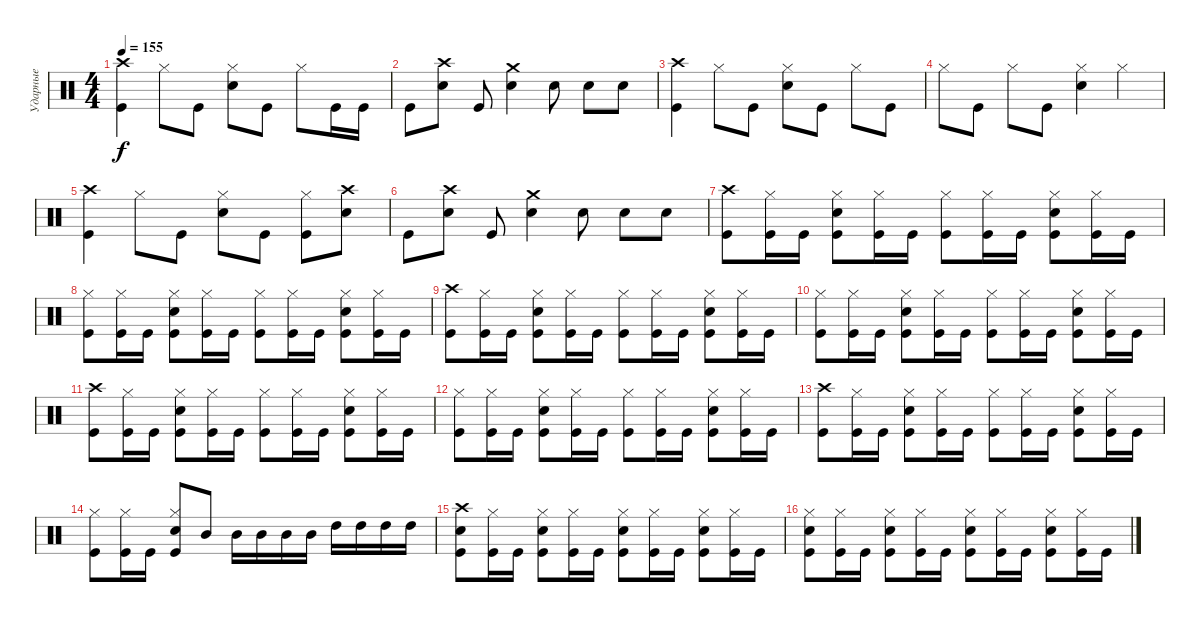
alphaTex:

\track ("Ударные" "Ударные") {instrument percussion}
\staff {score}
\articulation defaults
\ts (4 4)
\tempo 155
\clef neutral
\ks c
("Crash high (hit)" "Kick (hit)").4{dy f} "Hi-Hat (closed)".8 "Kick (hit)".8 ("Hi-Hat (closed)" "Electric Snare (hit)").8 "Kick (hit)".8 "Hi-Hat (closed)".8 "Kick (hit)".16 "Kick (hit)".16 |
"Kick (hit)".8 ("Crash high (hit)" "Electric Snare (hit)").8 "Kick (hit)".8 ("Crash medium (hit)" "Electric Snare (hit)").4 "Electric Snare (hit)".8 "Electric Snare (hit)".8 "Electric Snare (hit)".8 |
("Crash high (hit)" "Kick (hit)").4 "Hi-Hat (closed)".8 "Kick (hit)".8 ("Hi-Hat (closed)" "Electric Snare (hit)").8 "Kick (hit)".8 "Hi-Hat (closed)".8 "Kick (hit)".8 |
"Hi-Hat (closed)".8 "Kick (hit)".8 "Hi-Hat (closed)".8 "Kick (hit)".8 ("Hi-Hat (closed)" "Electric Snare (hit)").4 "Hi-Hat (closed)".4 |
("Crash high (hit)" "Kick (hit)").4 "Hi-Hat (closed)".8 "Kick (hit)".8 ("Hi-Hat (closed)" "Electric Snare (hit)").8 "Kick (hit)".8 ("Hi-Hat (closed)" "Kick (hit)").8 ("Crash high (hit)" "Electric Snare (hit)").8 |
"Kick (hit)".8 ("Crash high (hit)" "Electric Snare (hit)").8 "Kick (hit)".8 ("Crash medium (hit)" "Electric Snare (hit)").4 "Electric Snare (hit)".8 "Electric Snare (hit)".8 "Electric Snare (hit)".8 |
("Crash high (hit)" "Kick (hit)").8 ("Hi-Hat (closed)" "Kick (hit)").16 "Kick (hit)".16 ("Hi-Hat (closed)" "Electric Snare (hit)" "Kick (hit)").8 ("Hi-Hat (closed)" "Kick (hit)").16 "Kick (hit)".16 ("Hi-Hat (closed)" "Kick (hit)").8 ("Hi-Hat (closed)" "Kick (hit)").16 "Kick (hit)".16 ("Hi-Hat (closed)" "Electric Snare (hit)" "Kick (hit)").8 ("Hi-Hat (closed)" "Kick (hit)").16 "Kick (hit)".16 |
("Hi-Hat (closed)" "Kick (hit)").8 ("Hi-Hat (closed)" "Kick (hit)").16 "Kick (hit)".16 ("Hi-Hat (closed)" "Electric Snare (hit)" "Kick (hit)").8 ("Hi-Hat (closed)" "Kick (hit)").16 "Kick (hit)".16 ("Hi-Hat (closed)" "Kick (hit)").8 ("Hi-Hat (closed)" "Kick (hit)").16 "Kick (hit)".16 ("Hi-Hat (closed)" "Electric Snare (hit)" "Kick (hit)").8 ("Hi-Hat (closed)" "Kick (hit)").16 "Kick (hit)".16 |
("Crash high (hit)" "Kick (hit)").8 ("Hi-Hat (closed)" "Kick (hit)").16 "Kick (hit)".16 ("Hi-Hat (closed)" "Electric Snare (hit)" "Kick (hit)").8 ("Hi-Hat (closed)" "Kick (hit)").16 "Kick (hit)".16 ("Hi-Hat (closed)" "Kick (hit)").8 ("Hi-Hat (closed)" "Kick (hit)").16 "Kick (hit)".16 ("Hi-Hat (closed)" "Electric Snare (hit)" "Kick (hit)").8 ("Hi-Hat (closed)" "Kick (hit)").16 "Kick (hit)".16 |
("Hi-Hat (closed)" "Kick (hit)").8 ("Hi-Hat (closed)" "Kick (hit)").16 "Kick (hit)".16 ("Hi-Hat (closed)" "Electric Snare (hit)" "Kick (hit)").8 ("Hi-Hat (closed)" "Kick (hit)").16 "Kick (hit)".16 ("Hi-Hat (closed)" "Kick (hit)").8 ("Hi-Hat (closed)" "Kick (hit)").16 "Kick (hit)".16 ("Hi-Hat (closed)" "Electric Snare (hit)" "Kick (hit)").8 ("Hi-Hat (closed)" "Kick (hit)").16 "Kick (hit)".16 |
("Crash high (hit)" "Kick (hit)").8 ("Hi-Hat (closed)" "Kick (hit)").16 "Kick (hit)".16 ("Hi-Hat (closed)" "Electric Snare (hit)" "Kick (hit)").8 ("Hi-Hat (closed)" "Kick (hit)").16 "Kick (hit)".16 ("Hi-Hat (closed)" "Kick (hit)").8 ("Hi-Hat (closed)" "Kick (hit)").16 "Kick (hit)".16 ("Hi-Hat (closed)" "Electric Snare (hit)" "Kick (hit)").8 ("Hi-Hat (closed)" "Kick (hit)").16 "Kick (hit)".16 |
("Hi-Hat (closed)" "Kick (hit)").8 ("Hi-Hat (closed)" "Kick (hit)").16 "Kick (hit)".16 ("Hi-Hat (closed)" "Electric Snare (hit)" "Kick (hit)").8 ("Hi-Hat (closed)" "Kick (hit)").16 "Kick (hit)".16 ("Hi-Hat (closed)" "Kick (hit)").8 ("Hi-Hat (closed)" "Kick (hit)").16 "Kick (hit)".16 ("Hi-Hat (closed)" "Electric Snare (hit)" "Kick (hit)").8 ("Hi-Hat (closed)" "Kick (hit)").16 "Kick (hit)".16 |
("Crash high (hit)" "Kick (hit)").8 ("Hi-Hat (closed)" "Kick (hit)").16 "Kick (hit)".16 ("Hi-Hat (closed)" "Electric Snare (hit)" "Kick (hit)").8 ("Hi-Hat (closed)" "Kick (hit)").16 "Kick (hit)".16 ("Hi-Hat (closed)" "Kick (hit)").8 ("Hi-Hat (closed)" "Kick (hit)").16 "Kick (hit)".16 ("Hi-Hat (closed)" "Electric Snare (hit)" "Kick (hit)").8 ("Hi-Hat (closed)" "Kick (hit)").16 "Kick (hit)".16 |
("Hi-Hat (closed)" "Kick (hit)").8 ("Hi-Hat (closed)" "Kick (hit)").16 "Kick (hit)".16 ("Hi-Hat (closed)" "Electric Snare (hit)" "Kick (hit)").8 "Mid Tom (hit)".8 "Mid Tom (hit)".16 "Mid Tom (hit)".16 "Mid Tom (hit)".16 "Mid Tom (hit)".16 "High Tom (hit)".16 "High Tom (hit)".16 "High Tom (hit)".16 "High Tom (hit)".16 |
("Crash high (hit)" "Electric Snare (hit)" "Kick (hit)").8 ("Hi-Hat (closed)" "Kick (hit)").16 "Kick (hit)".16 ("Hi-Hat (closed)" "Electric Snare (hit)" "Kick (hit)").8 ("Hi-Hat (closed)" "Kick (hit)").16 "Kick (hit)".16 ("Hi-Hat (closed)" "Electric Snare (hit)" "Kick (hit)").8 ("Hi-Hat (closed)" "Kick (hit)").16 "Kick (hit)".16 ("Hi-Hat (closed)" "Electric Snare (hit)" "Kick (hit)").8 ("Hi-Hat (closed)" "Kick (hit)").16 "Kick (hit)".16 |
("Hi-Hat (closed)" "Electric Snare (hit)" "Kick (hit)").8 ("Hi-Hat (closed)" "Kick (hit)").16 "Kick (hit)".16 ("Hi-Hat (closed)" "Electric Snare (hit)" "Kick (hit)").8 ("Hi-Hat (closed)" "Kick (hit)").16 "Kick (hit)".16 ("Hi-Hat (closed)" "Electric Snare (hit)" "Kick (hit)").8 ("Hi-Hat (closed)" "Kick (hit)").16 "Kick (hit)".16 ("Hi-Hat (closed)" "Electric Snare (hit)" "Kick (hit)").8 ("Hi-Hat (closed)" "Kick (hit)").16 "Kick (hit)".16
